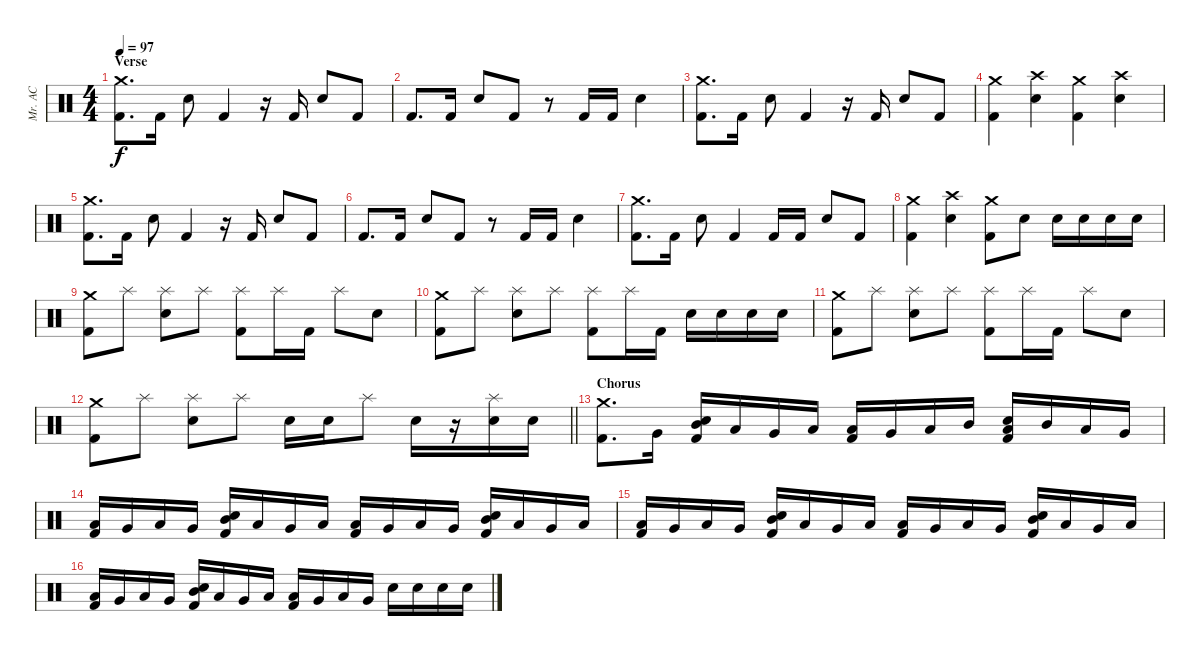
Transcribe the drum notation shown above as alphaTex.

\track ("Mr. AC" "Mr. AC") {instrument percussion}
\staff {score}
\articulation defaults
\ts (4 4)
\section ("" "Verse")
\tempo 97
\clef neutral
\ks c
("Crash medium (hit)" "Kick (hit) 2").8{d dy f} "Kick (hit) 2".16 "Snare (hit) 2".8 "Kick (hit) 2".4 r.16 "Kick (hit) 2".16 "Snare (hit) 2".8 "Kick (hit) 2".8 |
"Kick (hit) 2".8{d} "Kick (hit) 2".16 "Snare (hit) 2".8 "Kick (hit) 2".8 r.8 "Kick (hit) 2".16 "Kick (hit) 2".16 "Snare (hit) 2".4 |
("Crash medium (hit)" "Kick (hit) 2").8{d} "Kick (hit) 2".16 "Snare (hit) 2".8 "Kick (hit) 2".4 r.16 "Kick (hit) 2".16 "Snare (hit) 2".8 "Kick (hit) 2".8 |
("Crash medium (hit)" "Kick (hit) 2").4 ("Crash high (hit)" "Snare (hit) 2").4 ("Crash medium (hit)" "Kick (hit) 2").4 ("Crash high (hit)" "Snare (hit) 2").4 |
("Crash medium (hit)" "Kick (hit) 2").8{d} "Kick (hit) 2".16 "Snare (hit) 2".8 "Kick (hit) 2".4 r.16 "Kick (hit) 2".16 "Snare (hit) 2".8 "Kick (hit) 2".8 |
"Kick (hit) 2".8{d} "Kick (hit) 2".16 "Snare (hit) 2".8 "Kick (hit) 2".8 r.8 "Kick (hit) 2".16 "Kick (hit) 2".16 "Snare (hit) 2".4 |
("Crash medium (hit)" "Kick (hit) 2").8{d} "Kick (hit) 2".16 "Snare (hit) 2".8 "Kick (hit) 2".4 "Kick (hit) 2".16 "Kick (hit) 2".16 "Snare (hit) 2".8 "Kick (hit) 2".8 |
("Crash medium (hit)" "Kick (hit) 2").4 ("Crash high (hit)" "Snare (hit) 2").4 ("Crash medium (hit)" "Kick (hit) 2").8 "Snare (hit) 2".8 "Snare (hit) 2".16 "Snare (hit) 2".16 "Snare (hit) 2".16 "Snare (hit) 2".16 |
("Crash medium (hit)" "Kick (hit) 2").8 "Splash (hit)".8 ("Splash (hit)" "Snare (hit) 2").8 "Splash (hit)".8 ("Splash (hit)" "Kick (hit) 2").8 "Splash (hit)".16 "Kick (hit) 2".16 "Splash (hit)".8 "Snare (hit) 2".8 |
("Crash medium (hit)" "Kick (hit) 2").8 "Splash (hit)".8 ("Splash (hit)" "Snare (hit) 2").8 "Splash (hit)".8 ("Splash (hit)" "Kick (hit) 2").8 "Splash (hit)".16 "Kick (hit) 2".16 "Snare (hit) 2".16 "Snare (hit) 2".16 "Snare (hit) 2".16 "Snare (hit) 2".16 |
("Crash medium (hit)" "Kick (hit) 2").8 "Splash (hit)".8 ("Splash (hit)" "Snare (hit) 2").8 "Splash (hit)".8 ("Splash (hit)" "Kick (hit) 2").8 "Splash (hit)".16 "Kick (hit) 2".16 "Splash (hit)".8 "Snare (hit) 2".8 |
\barLineRight lightlight
("Crash medium (hit)" "Kick (hit) 2").8 "Splash (hit)".8 ("Splash (hit)" "Snare (hit) 2").8 "Splash (hit)".8 "Snare (hit) 2".16 "Snare (hit) 2".16 "Splash (hit)".8 "Snare (hit) 2".16 r.16 ("Splash (hit)" "Snare (hit) 2").16 "Snare (hit) 2".16 |
\section ("" "Chorus")
("Crash medium (hit)" "Kick (hit) 2").8{d} "Very Low Tom (hit)".16 ("Snare (hit) 2" "Mid Tom (hit)" "Kick (hit) 2").16 "Low Floor Tom (hit)".16 "Very Low Tom (hit)".16 "Low Tom (hit)".16 ("Low Floor Tom (hit)" "Kick (hit) 2").16 "Very Low Tom (hit)".16 "Low Tom (hit)".16 "Mid Tom (hit)".16 ("Snare (hit) 2" "Low Tom (hit)" "Kick (hit) 2").16 "Mid Tom (hit)".16 "Low Tom (hit)".16 "Very Low Tom (hit)".16 |
("Low Floor Tom (hit)" "Kick (hit) 2").16 "Very Low Tom (hit)".16 "Low Tom (hit)".16 "Very Low Tom (hit)".16 ("Snare (hit) 2" "Mid Tom (hit)" "Kick (hit) 2").16 "Low Tom (hit)".16 "Very Low Tom (hit)".16 "Low Tom (hit)".16 ("Low Floor Tom (hit)" "Kick (hit) 2").16 "Very Low Tom (hit)".16 "Low Tom (hit)".16 "Very Low Tom (hit)".16 ("Snare (hit) 2" "Mid Tom (hit)" "Kick (hit) 2").16 "Low Tom (hit)".16 "Very Low Tom (hit)".16 "Low Tom (hit)".16 |
("Low Floor Tom (hit)" "Kick (hit) 2").16 "Very Low Tom (hit)".16 "Low Tom (hit)".16 "Very Low Tom (hit)".16 ("Snare (hit) 2" "Mid Tom (hit)" "Kick (hit) 2").16 "Low Tom (hit)".16 "Very Low Tom (hit)".16 "Low Tom (hit)".16 ("Low Floor Tom (hit)" "Kick (hit) 2").16 "Very Low Tom (hit)".16 "Low Tom (hit)".16 "Very Low Tom (hit)".16 ("Snare (hit) 2" "Mid Tom (hit)" "Kick (hit) 2").16 "Low Tom (hit)".16 "Very Low Tom (hit)".16 "Low Tom (hit)".16 |
("Low Floor Tom (hit)" "Kick (hit) 2").16 "Very Low Tom (hit)".16 "Low Tom (hit)".16 "Very Low Tom (hit)".16 ("Snare (hit) 2" "Mid Tom (hit)" "Kick (hit) 2").16 "Low Tom (hit)".16 "Very Low Tom (hit)".16 "Low Tom (hit)".16 ("Low Floor Tom (hit)" "Kick (hit) 2").16 "Very Low Tom (hit)".16 "Low Tom (hit)".16 "Very Low Tom (hit)".16 "Snare (hit) 2".16 "Snare (hit) 2".16 "Snare (hit) 2".16 "Snare (hit) 2".16
